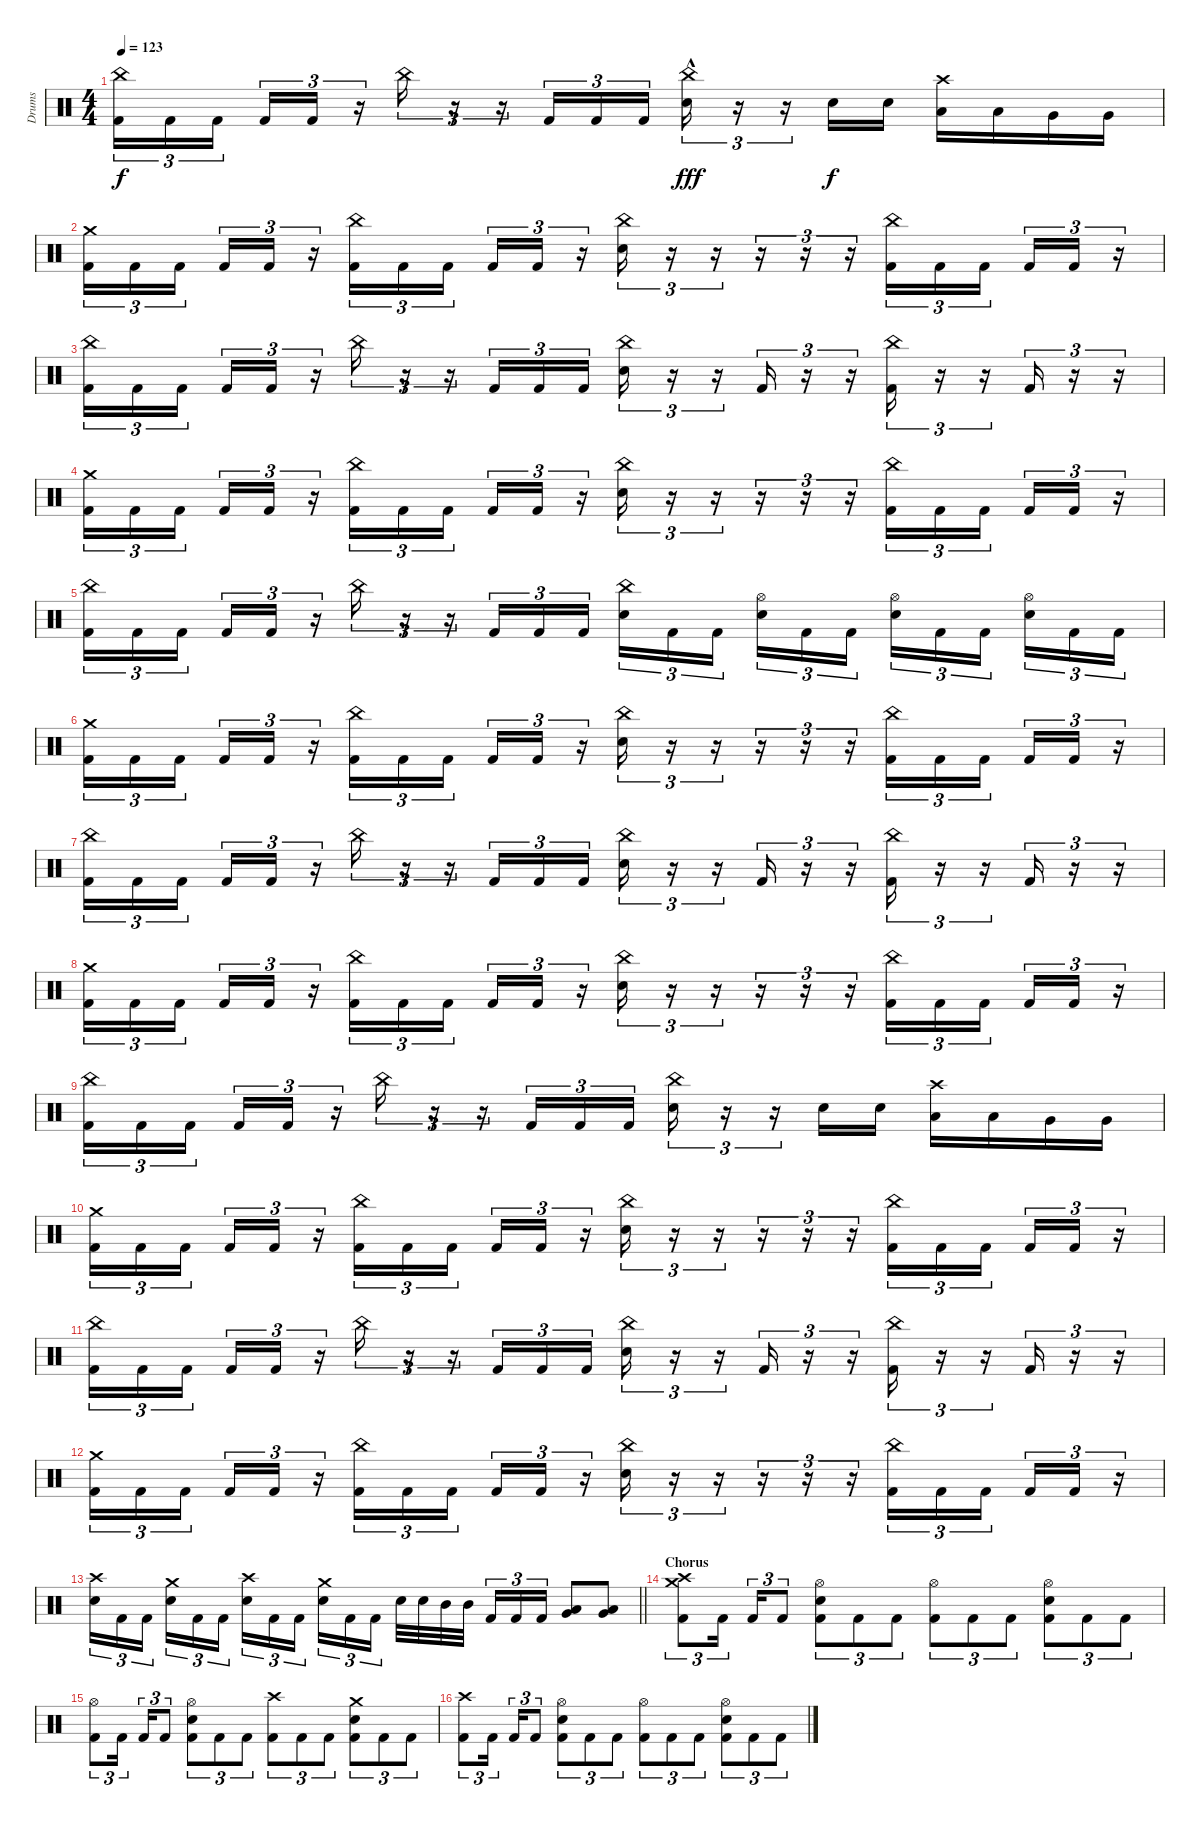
\track ("Drums" "Drums") {instrument percussion}
\staff {score}
\articulation defaults
\ts (4 4)
\tempo 123
\clef neutral
\ks c
("China (hit)" "Kick (hit) 2").16{tu (3 2) dy f} "Kick (hit) 2".16{tu (3 2)} "Kick (hit) 2".16{tu (3 2) beam splitsecondary} "Kick (hit) 2".16{tu (3 2)} "Kick (hit) 2".16{tu (3 2)} r.16{tu (3 2)} "China (hit)".16{tu (3 2)} r.16{tu (3 2)} r.16{tu (3 2)} "Kick (hit) 2".16{tu (3 2)} "Kick (hit) 2".16{tu (3 2)} "Kick (hit) 2".16{tu (3 2)} ("China (hit)" "Snare (hit) 2"{hac}).16{tu (3 2) dy fff} r.16{tu (3 2)} r.16{tu (3 2)} "Snare (hit) 2".16{dy f} "Snare (hit) 2".16 ("Crash high (hit)" "Low Tom (hit)").16 "Low Tom (hit)".16 "Very Low Tom (hit)".16 "Very Low Tom (hit)".16 |
("Crash medium (hit)" "Kick (hit) 2").16{tu (3 2)} "Kick (hit) 2".16{tu (3 2)} "Kick (hit) 2".16{tu (3 2) beam splitsecondary} "Kick (hit) 2".16{tu (3 2)} "Kick (hit) 2".16{tu (3 2)} r.16{tu (3 2)} ("China (hit)" "Kick (hit) 2").16{tu (3 2)} "Kick (hit) 2".16{tu (3 2)} "Kick (hit) 2".16{tu (3 2) beam splitsecondary} "Kick (hit) 2".16{tu (3 2)} "Kick (hit) 2".16{tu (3 2)} r.16{tu (3 2)} ("China (hit)" "Snare (hit) 2").16{tu (3 2)} r.16{tu (3 2)} r.16{tu (3 2)} r.16{tu (3 2)} r.16{tu (3 2)} r.16{tu (3 2)} ("China (hit)" "Kick (hit) 2").16{tu (3 2)} "Kick (hit) 2".16{tu (3 2)} "Kick (hit) 2".16{tu (3 2) beam splitsecondary} "Kick (hit) 2".16{tu (3 2)} "Kick (hit) 2".16{tu (3 2)} r.16{tu (3 2)} |
("China (hit)" "Kick (hit) 2").16{tu (3 2)} "Kick (hit) 2".16{tu (3 2)} "Kick (hit) 2".16{tu (3 2) beam splitsecondary} "Kick (hit) 2".16{tu (3 2)} "Kick (hit) 2".16{tu (3 2)} r.16{tu (3 2)} "China (hit)".16{tu (3 2)} r.16{tu (3 2)} r.16{tu (3 2)} "Kick (hit) 2".16{tu (3 2)} "Kick (hit) 2".16{tu (3 2)} "Kick (hit) 2".16{tu (3 2)} ("China (hit)" "Snare (hit) 2").16{tu (3 2)} r.16{tu (3 2)} r.16{tu (3 2)} "Kick (hit) 2".16{tu (3 2)} r.16{tu (3 2)} r.16{tu (3 2)} ("China (hit)" "Kick (hit) 2").16{tu (3 2)} r.16{tu (3 2)} r.16{tu (3 2)} "Kick (hit) 2".16{tu (3 2)} r.16{tu (3 2)} r.16{tu (3 2)} |
("Crash medium (hit)" "Kick (hit) 2").16{tu (3 2)} "Kick (hit) 2".16{tu (3 2)} "Kick (hit) 2".16{tu (3 2) beam splitsecondary} "Kick (hit) 2".16{tu (3 2)} "Kick (hit) 2".16{tu (3 2)} r.16{tu (3 2)} ("China (hit)" "Kick (hit) 2").16{tu (3 2)} "Kick (hit) 2".16{tu (3 2)} "Kick (hit) 2".16{tu (3 2) beam splitsecondary} "Kick (hit) 2".16{tu (3 2)} "Kick (hit) 2".16{tu (3 2)} r.16{tu (3 2)} ("China (hit)" "Snare (hit) 2").16{tu (3 2)} r.16{tu (3 2)} r.16{tu (3 2)} r.16{tu (3 2)} r.16{tu (3 2)} r.16{tu (3 2)} ("China (hit)" "Kick (hit) 2").16{tu (3 2)} "Kick (hit) 2".16{tu (3 2)} "Kick (hit) 2".16{tu (3 2) beam splitsecondary} "Kick (hit) 2".16{tu (3 2)} "Kick (hit) 2".16{tu (3 2)} r.16{tu (3 2)} |
("China (hit)" "Kick (hit) 2").16{tu (3 2)} "Kick (hit) 2".16{tu (3 2)} "Kick (hit) 2".16{tu (3 2) beam splitsecondary} "Kick (hit) 2".16{tu (3 2)} "Kick (hit) 2".16{tu (3 2)} r.16{tu (3 2)} "China (hit)".16{tu (3 2)} r.16{tu (3 2)} r.16{tu (3 2)} "Kick (hit) 2".16{tu (3 2)} "Kick (hit) 2".16{tu (3 2)} "Kick (hit) 2".16{tu (3 2)} ("China (hit)" "Snare (hit) 2").16{tu (3 2)} "Kick (hit) 2".16{tu (3 2)} "Kick (hit) 2".16{tu (3 2) beam splitsecondary} ("Hi-Hat (open)" "Snare (hit) 2").16{tu (3 2)} "Kick (hit) 2".16{tu (3 2)} "Kick (hit) 2".16{tu (3 2)} ("Hi-Hat (open)" "Snare (hit) 2").16{tu (3 2)} "Kick (hit) 2".16{tu (3 2)} "Kick (hit) 2".16{tu (3 2) beam splitsecondary} ("Hi-Hat (open)" "Snare (hit) 2").16{tu (3 2)} "Kick (hit) 2".16{tu (3 2)} "Kick (hit) 2".16{tu (3 2)} |
("Crash medium (hit)" "Kick (hit) 2").16{tu (3 2)} "Kick (hit) 2".16{tu (3 2)} "Kick (hit) 2".16{tu (3 2) beam splitsecondary} "Kick (hit) 2".16{tu (3 2)} "Kick (hit) 2".16{tu (3 2)} r.16{tu (3 2)} ("China (hit)" "Kick (hit) 2").16{tu (3 2)} "Kick (hit) 2".16{tu (3 2)} "Kick (hit) 2".16{tu (3 2) beam splitsecondary} "Kick (hit) 2".16{tu (3 2)} "Kick (hit) 2".16{tu (3 2)} r.16{tu (3 2)} ("China (hit)" "Snare (hit) 2").16{tu (3 2)} r.16{tu (3 2)} r.16{tu (3 2)} r.16{tu (3 2)} r.16{tu (3 2)} r.16{tu (3 2)} ("China (hit)" "Kick (hit) 2").16{tu (3 2)} "Kick (hit) 2".16{tu (3 2)} "Kick (hit) 2".16{tu (3 2) beam splitsecondary} "Kick (hit) 2".16{tu (3 2)} "Kick (hit) 2".16{tu (3 2)} r.16{tu (3 2)} |
("China (hit)" "Kick (hit) 2").16{tu (3 2)} "Kick (hit) 2".16{tu (3 2)} "Kick (hit) 2".16{tu (3 2) beam splitsecondary} "Kick (hit) 2".16{tu (3 2)} "Kick (hit) 2".16{tu (3 2)} r.16{tu (3 2)} "China (hit)".16{tu (3 2)} r.16{tu (3 2)} r.16{tu (3 2)} "Kick (hit) 2".16{tu (3 2)} "Kick (hit) 2".16{tu (3 2)} "Kick (hit) 2".16{tu (3 2)} ("China (hit)" "Snare (hit) 2").16{tu (3 2)} r.16{tu (3 2)} r.16{tu (3 2)} "Kick (hit) 2".16{tu (3 2)} r.16{tu (3 2)} r.16{tu (3 2)} ("China (hit)" "Kick (hit) 2").16{tu (3 2)} r.16{tu (3 2)} r.16{tu (3 2)} "Kick (hit) 2".16{tu (3 2)} r.16{tu (3 2)} r.16{tu (3 2)} |
("Crash medium (hit)" "Kick (hit) 2").16{tu (3 2)} "Kick (hit) 2".16{tu (3 2)} "Kick (hit) 2".16{tu (3 2) beam splitsecondary} "Kick (hit) 2".16{tu (3 2)} "Kick (hit) 2".16{tu (3 2)} r.16{tu (3 2)} ("China (hit)" "Kick (hit) 2").16{tu (3 2)} "Kick (hit) 2".16{tu (3 2)} "Kick (hit) 2".16{tu (3 2) beam splitsecondary} "Kick (hit) 2".16{tu (3 2)} "Kick (hit) 2".16{tu (3 2)} r.16{tu (3 2)} ("China (hit)" "Snare (hit) 2").16{tu (3 2)} r.16{tu (3 2)} r.16{tu (3 2)} r.16{tu (3 2)} r.16{tu (3 2)} r.16{tu (3 2)} ("China (hit)" "Kick (hit) 2").16{tu (3 2)} "Kick (hit) 2".16{tu (3 2)} "Kick (hit) 2".16{tu (3 2) beam splitsecondary} "Kick (hit) 2".16{tu (3 2)} "Kick (hit) 2".16{tu (3 2)} r.16{tu (3 2)} |
("China (hit)" "Kick (hit) 2").16{tu (3 2)} "Kick (hit) 2".16{tu (3 2)} "Kick (hit) 2".16{tu (3 2) beam splitsecondary} "Kick (hit) 2".16{tu (3 2)} "Kick (hit) 2".16{tu (3 2)} r.16{tu (3 2)} "China (hit)".16{tu (3 2)} r.16{tu (3 2)} r.16{tu (3 2)} "Kick (hit) 2".16{tu (3 2)} "Kick (hit) 2".16{tu (3 2)} "Kick (hit) 2".16{tu (3 2)} ("China (hit)" "Snare (hit) 2").16{tu (3 2)} r.16{tu (3 2)} r.16{tu (3 2)} "Snare (hit) 2".16 "Snare (hit) 2".16 ("Crash high (hit)" "Low Tom (hit)").16 "Low Tom (hit)".16 "Very Low Tom (hit)".16 "Very Low Tom (hit)".16 |
("Crash medium (hit)" "Kick (hit) 2").16{tu (3 2)} "Kick (hit) 2".16{tu (3 2)} "Kick (hit) 2".16{tu (3 2) beam splitsecondary} "Kick (hit) 2".16{tu (3 2)} "Kick (hit) 2".16{tu (3 2)} r.16{tu (3 2)} ("China (hit)" "Kick (hit) 2").16{tu (3 2)} "Kick (hit) 2".16{tu (3 2)} "Kick (hit) 2".16{tu (3 2) beam splitsecondary} "Kick (hit) 2".16{tu (3 2)} "Kick (hit) 2".16{tu (3 2)} r.16{tu (3 2)} ("China (hit)" "Snare (hit) 2").16{tu (3 2)} r.16{tu (3 2)} r.16{tu (3 2)} r.16{tu (3 2)} r.16{tu (3 2)} r.16{tu (3 2)} ("China (hit)" "Kick (hit) 2").16{tu (3 2)} "Kick (hit) 2".16{tu (3 2)} "Kick (hit) 2".16{tu (3 2) beam splitsecondary} "Kick (hit) 2".16{tu (3 2)} "Kick (hit) 2".16{tu (3 2)} r.16{tu (3 2)} |
("China (hit)" "Kick (hit) 2").16{tu (3 2)} "Kick (hit) 2".16{tu (3 2)} "Kick (hit) 2".16{tu (3 2) beam splitsecondary} "Kick (hit) 2".16{tu (3 2)} "Kick (hit) 2".16{tu (3 2)} r.16{tu (3 2)} "China (hit)".16{tu (3 2)} r.16{tu (3 2)} r.16{tu (3 2)} "Kick (hit) 2".16{tu (3 2)} "Kick (hit) 2".16{tu (3 2)} "Kick (hit) 2".16{tu (3 2)} ("China (hit)" "Snare (hit) 2").16{tu (3 2)} r.16{tu (3 2)} r.16{tu (3 2)} "Kick (hit) 2".16{tu (3 2)} r.16{tu (3 2)} r.16{tu (3 2)} ("China (hit)" "Kick (hit) 2").16{tu (3 2)} r.16{tu (3 2)} r.16{tu (3 2)} "Kick (hit) 2".16{tu (3 2)} r.16{tu (3 2)} r.16{tu (3 2)} |
("Crash medium (hit)" "Kick (hit) 2").16{tu (3 2)} "Kick (hit) 2".16{tu (3 2)} "Kick (hit) 2".16{tu (3 2) beam splitsecondary} "Kick (hit) 2".16{tu (3 2)} "Kick (hit) 2".16{tu (3 2)} r.16{tu (3 2)} ("China (hit)" "Kick (hit) 2").16{tu (3 2)} "Kick (hit) 2".16{tu (3 2)} "Kick (hit) 2".16{tu (3 2) beam splitsecondary} "Kick (hit) 2".16{tu (3 2)} "Kick (hit) 2".16{tu (3 2)} r.16{tu (3 2)} ("China (hit)" "Snare (hit) 2").16{tu (3 2)} r.16{tu (3 2)} r.16{tu (3 2)} r.16{tu (3 2)} r.16{tu (3 2)} r.16{tu (3 2)} ("China (hit)" "Kick (hit) 2").16{tu (3 2)} "Kick (hit) 2".16{tu (3 2)} "Kick (hit) 2".16{tu (3 2) beam splitsecondary} "Kick (hit) 2".16{tu (3 2)} "Kick (hit) 2".16{tu (3 2)} r.16{tu (3 2)} |
\barLineRight lightlight
("Crash high (hit)" "Snare (hit) 2").16{tu (3 2)} "Kick (hit) 2".16{tu (3 2)} "Kick (hit) 2".16{tu (3 2) beam splitsecondary} ("Crash medium (hit)" "Snare (hit) 2").16{tu (3 2)} "Kick (hit) 2".16{tu (3 2)} "Kick (hit) 2".16{tu (3 2)} ("Crash high (hit)" "Snare (hit) 2").16{tu (3 2)} "Kick (hit) 2".16{tu (3 2)} "Kick (hit) 2".16{tu (3 2) beam splitsecondary} ("Crash medium (hit)" "Snare (hit) 2").16{tu (3 2)} "Kick (hit) 2".16{tu (3 2)} "Kick (hit) 2".16{tu (3 2)} "Snare (hit) 2".32 "Snare (hit) 2".32 "Mid Tom (hit)".32 "Mid Tom (hit)".32{beam splitsecondary} "Kick (hit) 2".16{tu (3 2)} "Kick (hit) 2".16{tu (3 2)} "Kick (hit) 2".16{tu (3 2)} ("Low Tom (hit)" "Very Low Tom (hit)").8 ("Low Tom (hit)" "Very Low Tom (hit)").8 |
\section ("" "Chorus")
("Crash high (hit)" "Crash medium (hit)" "Kick (hit) 2").8{tu (3 2)} "Kick (hit) 2".16{tu (3 2) beam splitsecondary} "Kick (hit) 2".16{tu (3 2)} "Kick (hit) 2".8{tu (3 2)} ("Hi-Hat (open)" "Snare (hit) 2" "Kick (hit) 2").8{tu (3 2)} "Kick (hit) 2".8{tu (3 2)} "Kick (hit) 2".8{tu (3 2)} ("Hi-Hat (open)" "Kick (hit) 2").8{tu (3 2)} "Kick (hit) 2".8{tu (3 2)} "Kick (hit) 2".8{tu (3 2)} ("Hi-Hat (open)" "Snare (hit) 2" "Kick (hit) 2").8{tu (3 2)} "Kick (hit) 2".8{tu (3 2)} "Kick (hit) 2".8{tu (3 2)} |
("Hi-Hat (open)" "Kick (hit) 2").8{tu (3 2)} "Kick (hit) 2".16{tu (3 2) beam splitsecondary} "Kick (hit) 2".16{tu (3 2)} "Kick (hit) 2".8{tu (3 2)} ("Hi-Hat (open)" "Snare (hit) 2" "Kick (hit) 2").8{tu (3 2)} "Kick (hit) 2".8{tu (3 2)} "Kick (hit) 2".8{tu (3 2)} ("Crash high (hit)" "Kick (hit) 2").8{tu (3 2)} "Kick (hit) 2".8{tu (3 2)} "Kick (hit) 2".8{tu (3 2)} ("Crash medium (hit)" "Snare (hit) 2" "Kick (hit) 2").8{tu (3 2)} "Kick (hit) 2".8{tu (3 2)} "Kick (hit) 2".8{tu (3 2)} |
("Crash high (hit)" "Kick (hit) 2").8{tu (3 2)} "Kick (hit) 2".16{tu (3 2) beam splitsecondary} "Kick (hit) 2".16{tu (3 2)} "Kick (hit) 2".8{tu (3 2)} ("Hi-Hat (open)" "Snare (hit) 2" "Kick (hit) 2").8{tu (3 2)} "Kick (hit) 2".8{tu (3 2)} "Kick (hit) 2".8{tu (3 2)} ("Hi-Hat (open)" "Kick (hit) 2").8{tu (3 2)} "Kick (hit) 2".8{tu (3 2)} "Kick (hit) 2".8{tu (3 2)} ("Hi-Hat (open)" "Snare (hit) 2" "Kick (hit) 2").8{tu (3 2)} "Kick (hit) 2".8{tu (3 2)} "Kick (hit) 2".8{tu (3 2)}
